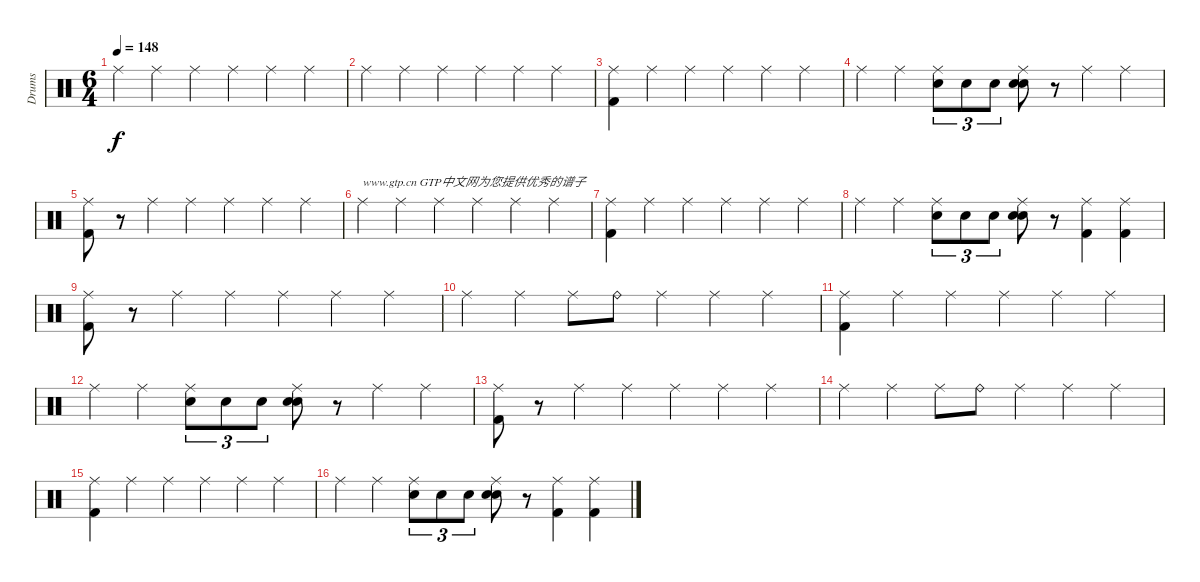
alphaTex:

\track ("Drums" "Drums") {instrument percussion}
\staff {score}
\articulation defaults
\ts (6 4)
\tempo 148
\clef neutral
\ks c "Ride (middle)".4{dy f} "Ride (middle)".4 "Ride (middle)".4 "Ride (middle)".4 "Ride (middle)".4 "Ride (middle)".4
|
"Ride (middle)".4 "Ride (middle)".4 "Ride (middle)".4 "Ride (middle)".4 "Ride (middle)".4 "Ride (middle)".4 |
("Kick (hit) 2" "Ride (middle)").4 "Ride (middle)".4 "Ride (middle)".4 "Ride (middle)".4 "Ride (middle)".4 "Ride (middle)".4 |
"Ride (middle)".4 "Ride (middle)".4 ("Snare (hit) 2" "Ride (middle)").8{tu (3 2)} "Snare (hit) 2".8{tu (3 2)} "Snare (hit) 2".8{tu (3 2)} ("Electric Snare (hit)" "Snare (hit) 2" "Ride (middle)").8 r.8 "Ride (middle)".4 "Ride (middle)".4 |
("Kick (hit) 2" "Ride (middle)").8 r.8 "Ride (middle)".4 "Ride (middle)".4 "Ride (middle)".4 "Ride (middle)".4 "Ride (middle)".4 |
"Ride (middle)".4{txt "www.gtp.cn GTP中文网为您提供优秀的谱子"} "Ride (middle)".4 "Ride (middle)".4 "Ride (middle)".4 "Ride (middle)".4 "Ride (middle)".4 |
("Kick (hit) 2" "Ride (middle)").4 "Ride (middle)".4 "Ride (middle)".4 "Ride (middle)".4 "Ride (middle)".4 "Ride (middle)".4 |
"Ride (middle)".4 "Ride (middle)".4 ("Snare (hit) 2" "Ride (middle)").8{tu (3 2)} "Snare (hit) 2".8{tu (3 2)} "Snare (hit) 2".8{tu (3 2)} ("Electric Snare (hit)" "Snare (hit) 2" "Ride (middle)").8 r.8 ("Kick (hit) 2" "Ride (middle)").4 ("Kick (hit) 2" "Ride (middle)").4 |
("Kick (hit) 2" "Ride (middle)").8 r.8 "Ride (middle)".4 "Ride (middle)".4 "Ride (middle)".4 "Ride (middle)".4 "Ride (middle)".4 |
"Ride (middle)".4 "Ride (middle)".4 "Ride (middle)".8 "Ride (bell)".8 "Ride (middle)".4 "Ride (middle)".4 "Ride (middle)".4 |
("Kick (hit) 2" "Ride (middle)").4 "Ride (middle)".4 "Ride (middle)".4 "Ride (middle)".4 "Ride (middle)".4 "Ride (middle)".4 |
"Ride (middle)".4 "Ride (middle)".4 ("Snare (hit) 2" "Ride (middle)").8{tu (3 2)} "Snare (hit) 2".8{tu (3 2)} "Snare (hit) 2".8{tu (3 2)} ("Electric Snare (hit)" "Snare (hit) 2" "Ride (middle)").8 r.8 "Ride (middle)".4 "Ride (middle)".4 |
("Kick (hit) 2" "Ride (middle)").8 r.8 "Ride (middle)".4 "Ride (middle)".4 "Ride (middle)".4 "Ride (middle)".4 "Ride (middle)".4 |
"Ride (middle)".4 "Ride (middle)".4 "Ride (middle)".8 "Ride (bell)".8 "Ride (middle)".4 "Ride (middle)".4 "Ride (middle)".4 |
("Kick (hit) 2" "Ride (middle)").4 "Ride (middle)".4 "Ride (middle)".4 "Ride (middle)".4 "Ride (middle)".4 "Ride (middle)".4 |
"Ride (middle)".4 "Ride (middle)".4 ("Snare (hit) 2" "Ride (middle)").8{tu (3 2)} "Snare (hit) 2".8{tu (3 2)} "Snare (hit) 2".8{tu (3 2)} ("Electric Snare (hit)" "Snare (hit) 2" "Ride (middle)").8 r.8 ("Kick (hit) 2" "Ride (middle)").4 ("Kick (hit) 2" "Ride (middle)").4
